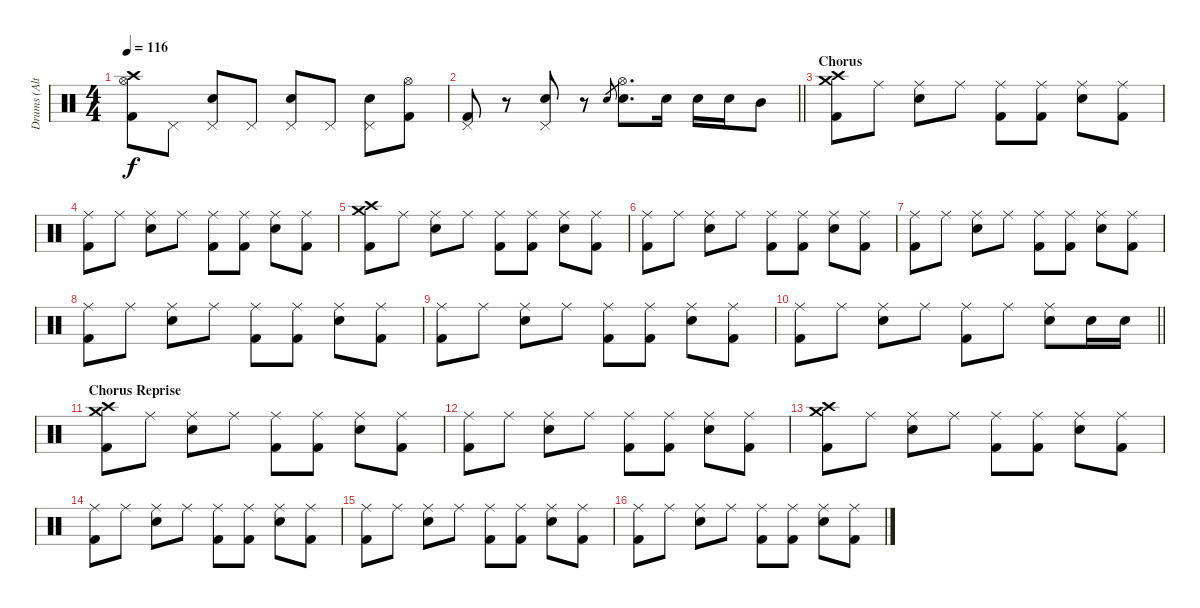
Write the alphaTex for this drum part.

\track ("Drums (Alternate - NOT ON MASTER)" "Drums (Alt") {mute instrument percussion}
\staff {score}
\articulation defaults
\ts (4 4)
\tempo 116
\clef neutral
\ks c
("Crash high (hit)" "Hi-Hat (open)" "Kick (hit) 2").8{dy f} "Pedal Hi-Hat (hit)".8 ("Snare (hit) 2" "Pedal Hi-Hat (hit)").8 "Pedal Hi-Hat (hit)".8 ("Snare (hit) 2" "Pedal Hi-Hat (hit)").8 "Pedal Hi-Hat (hit)".8 ("Snare (hit) 2" "Pedal Hi-Hat (hit)").8 ("Hi-Hat (open)" "Kick (hit) 2").8 |
\barLineRight lightlight
("Pedal Hi-Hat (hit)" "Kick (hit) 2").8 r.8 ("Snare (hit) 2" "Pedal Hi-Hat (hit)").8 r.8 "Snare (hit) 2".8{gr} ("Snare (hit) 2" "Hi-Hat (open)").8{d} "Snare (hit) 2".16 "Snare (hit) 2".16 "Snare (hit) 2".16 "Mid Tom (hit)".8 |
\section ("" "Chorus")
("Crash medium (hit)" "Crash high (hit)" "Kick (hit) 2").8 "Ride (middle)".8 ("Ride (middle)" "Snare (hit) 2").8 "Ride (middle)".8 ("Ride (middle)" "Kick (hit) 2").8 ("Ride (middle)" "Kick (hit) 2").8 ("Ride (middle)" "Snare (hit) 2").8 ("Ride (middle)" "Kick (hit) 2").8 |
("Ride (middle)" "Kick (hit) 2").8 "Ride (middle)".8 ("Ride (middle)" "Snare (hit) 2").8 "Ride (middle)".8 ("Ride (middle)" "Kick (hit) 2").8 ("Ride (middle)" "Kick (hit) 2").8 ("Ride (middle)" "Snare (hit) 2").8 ("Ride (middle)" "Kick (hit) 2").8 |
("Crash medium (hit)" "Crash high (hit)" "Kick (hit) 2").8 "Ride (middle)".8 ("Ride (middle)" "Snare (hit) 2").8 "Ride (middle)".8 ("Ride (middle)" "Kick (hit) 2").8 ("Ride (middle)" "Kick (hit) 2").8 ("Ride (middle)" "Snare (hit) 2").8 ("Ride (middle)" "Kick (hit) 2").8 |
("Ride (middle)" "Kick (hit) 2").8 "Ride (middle)".8 ("Ride (middle)" "Snare (hit) 2").8 "Ride (middle)".8 ("Ride (middle)" "Kick (hit) 2").8 ("Ride (middle)" "Kick (hit) 2").8 ("Ride (middle)" "Snare (hit) 2").8 ("Ride (middle)" "Kick (hit) 2").8 |
("Ride (middle)" "Kick (hit) 2").8 "Ride (middle)".8 ("Ride (middle)" "Snare (hit) 2").8 "Ride (middle)".8 ("Ride (middle)" "Kick (hit) 2").8 ("Ride (middle)" "Kick (hit) 2").8 ("Ride (middle)" "Snare (hit) 2").8 ("Ride (middle)" "Kick (hit) 2").8 |
("Ride (middle)" "Kick (hit) 2").8 "Ride (middle)".8 ("Ride (middle)" "Snare (hit) 2").8 "Ride (middle)".8 ("Ride (middle)" "Kick (hit) 2").8 ("Ride (middle)" "Kick (hit) 2").8 ("Ride (middle)" "Snare (hit) 2").8 ("Ride (middle)" "Kick (hit) 2").8 |
("Ride (middle)" "Kick (hit) 2").8 "Ride (middle)".8 ("Ride (middle)" "Snare (hit) 2").8 "Ride (middle)".8 ("Ride (middle)" "Kick (hit) 2").8 ("Ride (middle)" "Kick (hit) 2").8 ("Ride (middle)" "Snare (hit) 2").8 ("Ride (middle)" "Kick (hit) 2").8 |
\barLineRight lightlight
("Ride (middle)" "Kick (hit) 2").8 "Ride (middle)".8 ("Ride (middle)" "Snare (hit) 2").8 "Ride (middle)".8 ("Ride (middle)" "Kick (hit) 2").8 "Ride (middle)".8 ("Ride (middle)" "Snare (hit) 2").8 "Snare (hit) 2".16 "Snare (hit) 2".16 |
\section ("" "Chorus Reprise")
("Crash medium (hit)" "Crash high (hit)" "Kick (hit) 2").8 "Ride (middle)".8 ("Ride (middle)" "Snare (hit) 2").8 "Ride (middle)".8 ("Ride (middle)" "Kick (hit) 2").8 ("Ride (middle)" "Kick (hit) 2").8 ("Ride (middle)" "Snare (hit) 2").8 ("Ride (middle)" "Kick (hit) 2").8 |
("Ride (middle)" "Kick (hit) 2").8 "Ride (middle)".8 ("Ride (middle)" "Snare (hit) 2").8 "Ride (middle)".8 ("Ride (middle)" "Kick (hit) 2").8 ("Ride (middle)" "Kick (hit) 2").8 ("Ride (middle)" "Snare (hit) 2").8 ("Ride (middle)" "Kick (hit) 2").8 |
("Crash medium (hit)" "Crash high (hit)" "Kick (hit) 2").8 "Ride (middle)".8 ("Ride (middle)" "Snare (hit) 2").8 "Ride (middle)".8 ("Ride (middle)" "Kick (hit) 2").8 ("Ride (middle)" "Kick (hit) 2").8 ("Ride (middle)" "Snare (hit) 2").8 ("Ride (middle)" "Kick (hit) 2").8 |
("Ride (middle)" "Kick (hit) 2").8 "Ride (middle)".8 ("Ride (middle)" "Snare (hit) 2").8 "Ride (middle)".8 ("Ride (middle)" "Kick (hit) 2").8 ("Ride (middle)" "Kick (hit) 2").8 ("Ride (middle)" "Snare (hit) 2").8 ("Ride (middle)" "Kick (hit) 2").8 |
("Ride (middle)" "Kick (hit) 2").8 "Ride (middle)".8 ("Ride (middle)" "Snare (hit) 2").8 "Ride (middle)".8 ("Ride (middle)" "Kick (hit) 2").8 ("Ride (middle)" "Kick (hit) 2").8 ("Ride (middle)" "Snare (hit) 2").8 ("Ride (middle)" "Kick (hit) 2").8 |
("Ride (middle)" "Kick (hit) 2").8 "Ride (middle)".8 ("Ride (middle)" "Snare (hit) 2").8 "Ride (middle)".8 ("Ride (middle)" "Kick (hit) 2").8 ("Ride (middle)" "Kick (hit) 2").8 ("Ride (middle)" "Snare (hit) 2").8 ("Ride (middle)" "Kick (hit) 2").8
